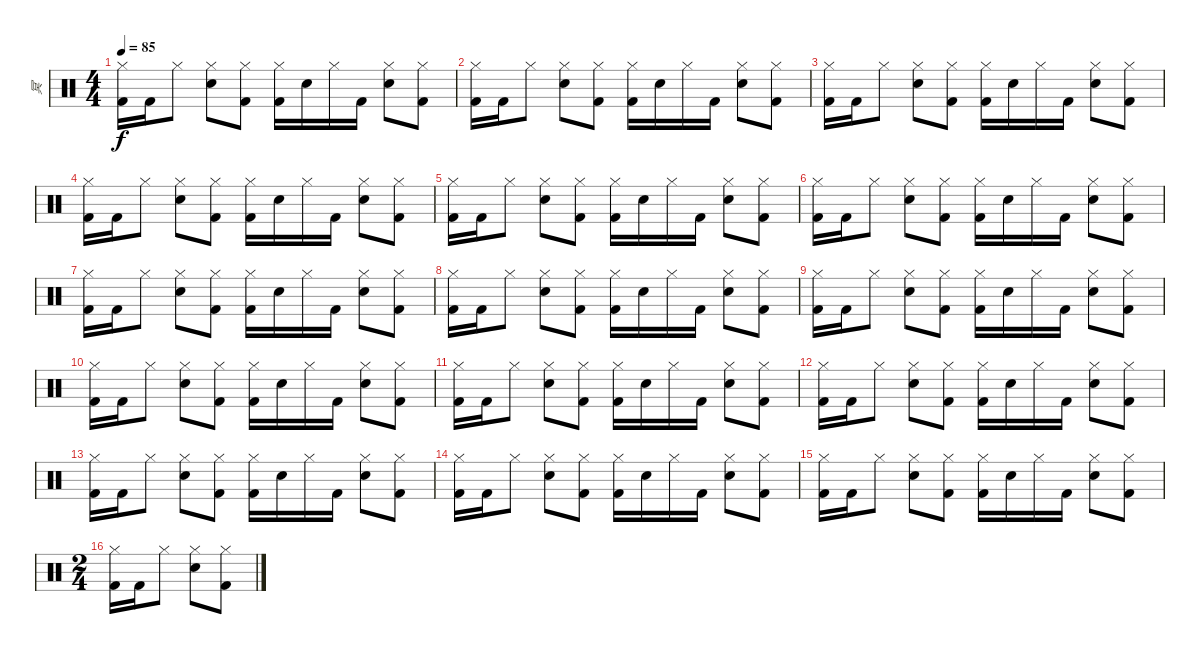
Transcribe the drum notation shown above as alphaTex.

\track ("冥" "冥") {instrument percussion}
\staff {score}
\articulation defaults
\ts (4 4)
\tempo 85
\clef neutral
\ks c
("Hi-Hat (closed)" "Kick (hit) 2").16{dy f} "Kick (hit) 2".16 "Hi-Hat (closed)".8 ("Hi-Hat (closed)" "Snare (hit) 2").8 ("Hi-Hat (closed)" "Kick (hit) 2").8 ("Hi-Hat (closed)" "Kick (hit) 2").16 "Snare (hit) 2".16 "Hi-Hat (closed)".16 "Kick (hit) 2".16 ("Hi-Hat (closed)" "Snare (hit) 2").8 ("Hi-Hat (closed)" "Kick (hit) 2").8 |
("Hi-Hat (closed)" "Kick (hit) 2").16 "Kick (hit) 2".16 "Hi-Hat (closed)".8 ("Hi-Hat (closed)" "Snare (hit) 2").8 ("Hi-Hat (closed)" "Kick (hit) 2").8 ("Hi-Hat (closed)" "Kick (hit) 2").16 "Snare (hit) 2".16 "Hi-Hat (closed)".16 "Kick (hit) 2".16 ("Hi-Hat (closed)" "Snare (hit) 2").8 ("Hi-Hat (closed)" "Kick (hit) 2").8 |
("Hi-Hat (closed)" "Kick (hit) 2").16 "Kick (hit) 2".16 "Hi-Hat (closed)".8 ("Hi-Hat (closed)" "Snare (hit) 2").8 ("Hi-Hat (closed)" "Kick (hit) 2").8 ("Hi-Hat (closed)" "Kick (hit) 2").16 "Snare (hit) 2".16 "Hi-Hat (closed)".16 "Kick (hit) 2".16 ("Hi-Hat (closed)" "Snare (hit) 2").8 ("Hi-Hat (closed)" "Kick (hit) 2").8 |
("Hi-Hat (closed)" "Kick (hit) 2").16 "Kick (hit) 2".16 "Hi-Hat (closed)".8 ("Hi-Hat (closed)" "Snare (hit) 2").8 ("Hi-Hat (closed)" "Kick (hit) 2").8 ("Hi-Hat (closed)" "Kick (hit) 2").16 "Snare (hit) 2".16 "Hi-Hat (closed)".16 "Kick (hit) 2".16 ("Hi-Hat (closed)" "Snare (hit) 2").8 ("Hi-Hat (closed)" "Kick (hit) 2").8 |
("Hi-Hat (closed)" "Kick (hit) 2").16 "Kick (hit) 2".16 "Hi-Hat (closed)".8 ("Hi-Hat (closed)" "Snare (hit) 2").8 ("Hi-Hat (closed)" "Kick (hit) 2").8 ("Hi-Hat (closed)" "Kick (hit) 2").16 "Snare (hit) 2".16 "Hi-Hat (closed)".16 "Kick (hit) 2".16 ("Hi-Hat (closed)" "Snare (hit) 2").8 ("Hi-Hat (closed)" "Kick (hit) 2").8 |
("Hi-Hat (closed)" "Kick (hit) 2").16 "Kick (hit) 2".16 "Hi-Hat (closed)".8 ("Hi-Hat (closed)" "Snare (hit) 2").8 ("Hi-Hat (closed)" "Kick (hit) 2").8 ("Hi-Hat (closed)" "Kick (hit) 2").16 "Snare (hit) 2".16 "Hi-Hat (closed)".16 "Kick (hit) 2".16 ("Hi-Hat (closed)" "Snare (hit) 2").8 ("Hi-Hat (closed)" "Kick (hit) 2").8 |
("Hi-Hat (closed)" "Kick (hit) 2").16 "Kick (hit) 2".16 "Hi-Hat (closed)".8 ("Hi-Hat (closed)" "Snare (hit) 2").8 ("Hi-Hat (closed)" "Kick (hit) 2").8 ("Hi-Hat (closed)" "Kick (hit) 2").16 "Snare (hit) 2".16 "Hi-Hat (closed)".16 "Kick (hit) 2".16 ("Hi-Hat (closed)" "Snare (hit) 2").8 ("Hi-Hat (closed)" "Kick (hit) 2").8 |
("Hi-Hat (closed)" "Kick (hit) 2").16 "Kick (hit) 2".16 "Hi-Hat (closed)".8 ("Hi-Hat (closed)" "Snare (hit) 2").8 ("Hi-Hat (closed)" "Kick (hit) 2").8 ("Hi-Hat (closed)" "Kick (hit) 2").16 "Snare (hit) 2".16 "Hi-Hat (closed)".16 "Kick (hit) 2".16 ("Hi-Hat (closed)" "Snare (hit) 2").8 ("Hi-Hat (closed)" "Kick (hit) 2").8 |
("Hi-Hat (closed)" "Kick (hit) 2").16 "Kick (hit) 2".16 "Hi-Hat (closed)".8 ("Hi-Hat (closed)" "Snare (hit) 2").8 ("Hi-Hat (closed)" "Kick (hit) 2").8 ("Hi-Hat (closed)" "Kick (hit) 2").16 "Snare (hit) 2".16 "Hi-Hat (closed)".16 "Kick (hit) 2".16 ("Hi-Hat (closed)" "Snare (hit) 2").8 ("Hi-Hat (closed)" "Kick (hit) 2").8 |
("Hi-Hat (closed)" "Kick (hit) 2").16 "Kick (hit) 2".16 "Hi-Hat (closed)".8 ("Hi-Hat (closed)" "Snare (hit) 2").8 ("Hi-Hat (closed)" "Kick (hit) 2").8 ("Hi-Hat (closed)" "Kick (hit) 2").16 "Snare (hit) 2".16 "Hi-Hat (closed)".16 "Kick (hit) 2".16 ("Hi-Hat (closed)" "Snare (hit) 2").8 ("Hi-Hat (closed)" "Kick (hit) 2").8 |
("Hi-Hat (closed)" "Kick (hit) 2").16 "Kick (hit) 2".16 "Hi-Hat (closed)".8 ("Hi-Hat (closed)" "Snare (hit) 2").8 ("Hi-Hat (closed)" "Kick (hit) 2").8 ("Hi-Hat (closed)" "Kick (hit) 2").16 "Snare (hit) 2".16 "Hi-Hat (closed)".16 "Kick (hit) 2".16 ("Hi-Hat (closed)" "Snare (hit) 2").8 ("Hi-Hat (closed)" "Kick (hit) 2").8 |
("Hi-Hat (closed)" "Kick (hit) 2").16 "Kick (hit) 2".16 "Hi-Hat (closed)".8 ("Hi-Hat (closed)" "Snare (hit) 2").8 ("Hi-Hat (closed)" "Kick (hit) 2").8 ("Hi-Hat (closed)" "Kick (hit) 2").16 "Snare (hit) 2".16 "Hi-Hat (closed)".16 "Kick (hit) 2".16 ("Hi-Hat (closed)" "Snare (hit) 2").8 ("Hi-Hat (closed)" "Kick (hit) 2").8 |
("Hi-Hat (closed)" "Kick (hit) 2").16 "Kick (hit) 2".16 "Hi-Hat (closed)".8 ("Hi-Hat (closed)" "Snare (hit) 2").8 ("Hi-Hat (closed)" "Kick (hit) 2").8 ("Hi-Hat (closed)" "Kick (hit) 2").16 "Snare (hit) 2".16 "Hi-Hat (closed)".16 "Kick (hit) 2".16 ("Hi-Hat (closed)" "Snare (hit) 2").8 ("Hi-Hat (closed)" "Kick (hit) 2").8 |
("Hi-Hat (closed)" "Kick (hit) 2").16 "Kick (hit) 2".16 "Hi-Hat (closed)".8 ("Hi-Hat (closed)" "Snare (hit) 2").8 ("Hi-Hat (closed)" "Kick (hit) 2").8 ("Hi-Hat (closed)" "Kick (hit) 2").16 "Snare (hit) 2".16 "Hi-Hat (closed)".16 "Kick (hit) 2".16 ("Hi-Hat (closed)" "Snare (hit) 2").8 ("Hi-Hat (closed)" "Kick (hit) 2").8 |
("Hi-Hat (closed)" "Kick (hit) 2").16 "Kick (hit) 2".16 "Hi-Hat (closed)".8 ("Hi-Hat (closed)" "Snare (hit) 2").8 ("Hi-Hat (closed)" "Kick (hit) 2").8 ("Hi-Hat (closed)" "Kick (hit) 2").16 "Snare (hit) 2".16 "Hi-Hat (closed)".16 "Kick (hit) 2".16 ("Hi-Hat (closed)" "Snare (hit) 2").8 ("Hi-Hat (closed)" "Kick (hit) 2").8 |
\ts (2 4)
("Hi-Hat (closed)" "Kick (hit) 2").16 "Kick (hit) 2".16 "Hi-Hat (closed)".8 ("Hi-Hat (closed)" "Snare (hit) 2").8 ("Hi-Hat (closed)" "Kick (hit) 2").8
